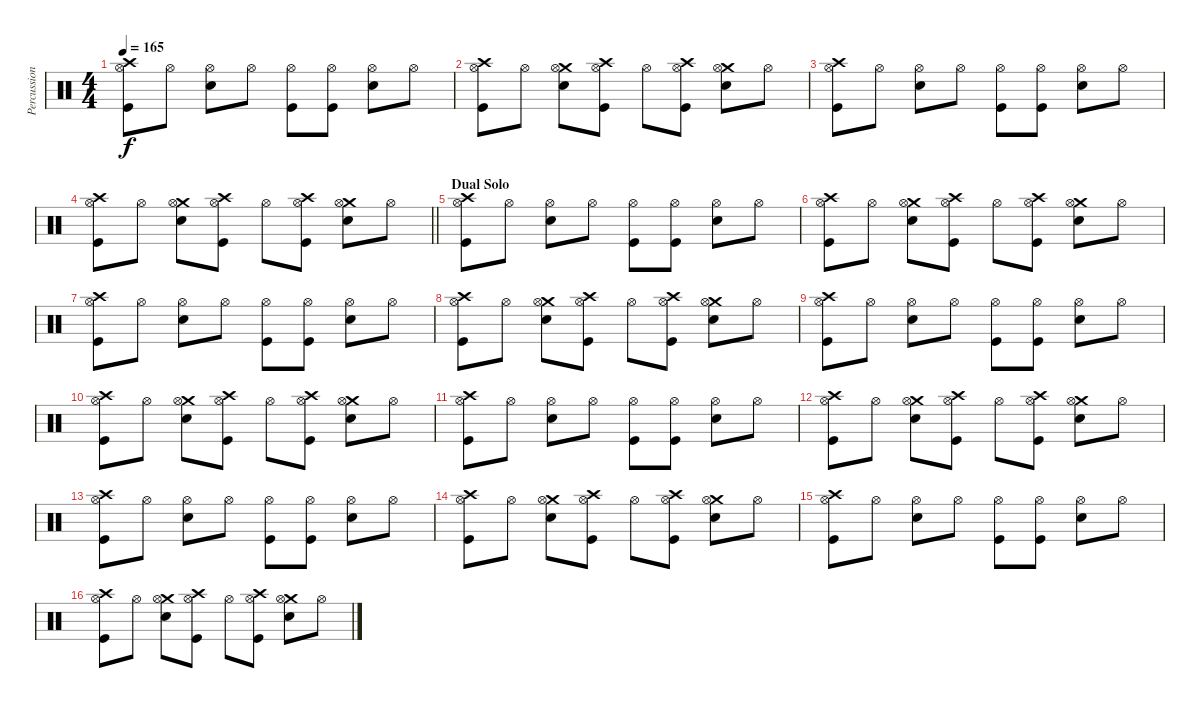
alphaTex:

\track ("Percussion" "Percussion") {instrument percussion}
\staff {score}
\articulation defaults
\ts (4 4)
\tempo 165
\clef neutral
\ks c
("Crash high (hit)" "Hi-Hat (open)" "Kick (hit)").8{dy f} "Hi-Hat (open)".8 ("Hi-Hat (open)" "Snare (hit) 2").8 "Hi-Hat (open)".8 ("Hi-Hat (open)" "Kick (hit)").8 ("Hi-Hat (open)" "Kick (hit)").8 ("Hi-Hat (open)" "Snare (hit) 2").8 "Hi-Hat (open)".8 |
("Crash high (hit)" "Hi-Hat (open)" "Kick (hit)").8 "Hi-Hat (open)".8 ("Crash medium (hit)" "Hi-Hat (open)" "Snare (hit) 2").8 ("Crash high (hit)" "Hi-Hat (open)" "Kick (hit)").8 "Hi-Hat (open)".8 ("Crash high (hit)" "Hi-Hat (open)" "Kick (hit)").8 ("Crash medium (hit)" "Hi-Hat (open)" "Snare (hit) 2").8 "Hi-Hat (open)".8 |
("Crash high (hit)" "Hi-Hat (open)" "Kick (hit)").8 "Hi-Hat (open)".8 ("Hi-Hat (open)" "Snare (hit) 2").8 "Hi-Hat (open)".8 ("Hi-Hat (open)" "Kick (hit)").8 ("Hi-Hat (open)" "Kick (hit)").8 ("Hi-Hat (open)" "Snare (hit) 2").8 "Hi-Hat (open)".8 |
\barLineRight lightlight
("Crash high (hit)" "Hi-Hat (open)" "Kick (hit)").8 "Hi-Hat (open)".8 ("Crash medium (hit)" "Hi-Hat (open)" "Snare (hit) 2").8 ("Crash high (hit)" "Hi-Hat (open)" "Kick (hit)").8 "Hi-Hat (open)".8 ("Crash high (hit)" "Hi-Hat (open)" "Kick (hit)").8 ("Crash medium (hit)" "Hi-Hat (open)" "Snare (hit) 2").8 "Hi-Hat (open)".8 |
\section ("" "Dual Solo")
("Crash high (hit)" "Hi-Hat (open)" "Kick (hit)").8 "Hi-Hat (open)".8 ("Hi-Hat (open)" "Snare (hit) 2").8 "Hi-Hat (open)".8 ("Hi-Hat (open)" "Kick (hit)").8 ("Hi-Hat (open)" "Kick (hit)").8 ("Hi-Hat (open)" "Snare (hit) 2").8 "Hi-Hat (open)".8 |
("Crash high (hit)" "Hi-Hat (open)" "Kick (hit)").8 "Hi-Hat (open)".8 ("Crash medium (hit)" "Hi-Hat (open)" "Snare (hit) 2").8 ("Crash high (hit)" "Hi-Hat (open)" "Kick (hit)").8 "Hi-Hat (open)".8 ("Crash high (hit)" "Hi-Hat (open)" "Kick (hit)").8 ("Crash medium (hit)" "Hi-Hat (open)" "Snare (hit) 2").8 "Hi-Hat (open)".8 |
("Crash high (hit)" "Hi-Hat (open)" "Kick (hit)").8 "Hi-Hat (open)".8 ("Hi-Hat (open)" "Snare (hit) 2").8 "Hi-Hat (open)".8 ("Hi-Hat (open)" "Kick (hit)").8 ("Hi-Hat (open)" "Kick (hit)").8 ("Hi-Hat (open)" "Snare (hit) 2").8 "Hi-Hat (open)".8 |
("Crash high (hit)" "Hi-Hat (open)" "Kick (hit)").8 "Hi-Hat (open)".8 ("Crash medium (hit)" "Hi-Hat (open)" "Snare (hit) 2").8 ("Crash high (hit)" "Hi-Hat (open)" "Kick (hit)").8 "Hi-Hat (open)".8 ("Crash high (hit)" "Hi-Hat (open)" "Kick (hit)").8 ("Crash medium (hit)" "Hi-Hat (open)" "Snare (hit) 2").8 "Hi-Hat (open)".8 |
("Crash high (hit)" "Hi-Hat (open)" "Kick (hit)").8 "Hi-Hat (open)".8 ("Hi-Hat (open)" "Snare (hit) 2").8 "Hi-Hat (open)".8 ("Hi-Hat (open)" "Kick (hit)").8 ("Hi-Hat (open)" "Kick (hit)").8 ("Hi-Hat (open)" "Snare (hit) 2").8 "Hi-Hat (open)".8 |
("Crash high (hit)" "Hi-Hat (open)" "Kick (hit)").8 "Hi-Hat (open)".8 ("Crash medium (hit)" "Hi-Hat (open)" "Snare (hit) 2").8 ("Crash high (hit)" "Hi-Hat (open)" "Kick (hit)").8 "Hi-Hat (open)".8 ("Crash high (hit)" "Hi-Hat (open)" "Kick (hit)").8 ("Crash medium (hit)" "Hi-Hat (open)" "Snare (hit) 2").8 "Hi-Hat (open)".8 |
("Crash high (hit)" "Hi-Hat (open)" "Kick (hit)").8 "Hi-Hat (open)".8 ("Hi-Hat (open)" "Snare (hit) 2").8 "Hi-Hat (open)".8 ("Hi-Hat (open)" "Kick (hit)").8 ("Hi-Hat (open)" "Kick (hit)").8 ("Hi-Hat (open)" "Snare (hit) 2").8 "Hi-Hat (open)".8 |
("Crash high (hit)" "Hi-Hat (open)" "Kick (hit)").8 "Hi-Hat (open)".8 ("Crash medium (hit)" "Hi-Hat (open)" "Snare (hit) 2").8 ("Crash high (hit)" "Hi-Hat (open)" "Kick (hit)").8 "Hi-Hat (open)".8 ("Crash high (hit)" "Hi-Hat (open)" "Kick (hit)").8 ("Crash medium (hit)" "Hi-Hat (open)" "Snare (hit) 2").8 "Hi-Hat (open)".8 |
("Crash high (hit)" "Hi-Hat (open)" "Kick (hit)").8 "Hi-Hat (open)".8 ("Hi-Hat (open)" "Snare (hit) 2").8 "Hi-Hat (open)".8 ("Hi-Hat (open)" "Kick (hit)").8 ("Hi-Hat (open)" "Kick (hit)").8 ("Hi-Hat (open)" "Snare (hit) 2").8 "Hi-Hat (open)".8 |
("Crash high (hit)" "Hi-Hat (open)" "Kick (hit)").8 "Hi-Hat (open)".8 ("Crash medium (hit)" "Hi-Hat (open)" "Snare (hit) 2").8 ("Crash high (hit)" "Hi-Hat (open)" "Kick (hit)").8 "Hi-Hat (open)".8 ("Crash high (hit)" "Hi-Hat (open)" "Kick (hit)").8 ("Crash medium (hit)" "Hi-Hat (open)" "Snare (hit) 2").8 "Hi-Hat (open)".8 |
("Crash high (hit)" "Hi-Hat (open)" "Kick (hit)").8 "Hi-Hat (open)".8 ("Hi-Hat (open)" "Snare (hit) 2").8 "Hi-Hat (open)".8 ("Hi-Hat (open)" "Kick (hit)").8 ("Hi-Hat (open)" "Kick (hit)").8 ("Hi-Hat (open)" "Snare (hit) 2").8 "Hi-Hat (open)".8 |
("Crash high (hit)" "Hi-Hat (open)" "Kick (hit)").8 "Hi-Hat (open)".8 ("Crash medium (hit)" "Hi-Hat (open)" "Snare (hit) 2").8 ("Crash high (hit)" "Hi-Hat (open)" "Kick (hit)").8 "Hi-Hat (open)".8 ("Crash high (hit)" "Hi-Hat (open)" "Kick (hit)").8 ("Crash medium (hit)" "Hi-Hat (open)" "Snare (hit) 2").8 "Hi-Hat (open)".8
